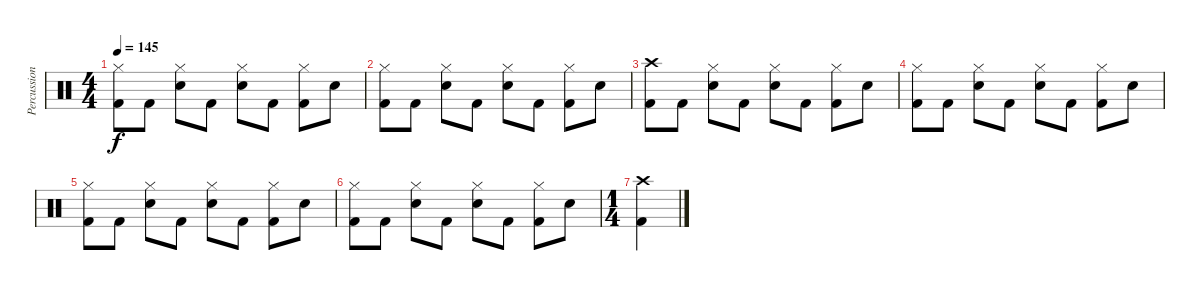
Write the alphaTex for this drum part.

\track ("Percussion" "Percussion") {instrument percussion}
\staff {score}
\articulation defaults
\ts (4 4)
\tempo 145
\clef neutral
\ks c
("Hi-Hat (closed)" "Kick (hit) 2").8{dy f} "Kick (hit) 2".8 ("Hi-Hat (closed)" "Electric Snare (hit)").8 "Kick (hit) 2".8 ("Hi-Hat (closed)" "Electric Snare (hit)").8 "Kick (hit) 2".8 ("Hi-Hat (closed)" "Kick (hit) 2").8 "Electric Snare (hit)".8 |
("Hi-Hat (closed)" "Kick (hit) 2").8 "Kick (hit) 2".8 ("Hi-Hat (closed)" "Electric Snare (hit)").8 "Kick (hit) 2".8 ("Hi-Hat (closed)" "Electric Snare (hit)").8 "Kick (hit) 2".8 ("Hi-Hat (closed)" "Kick (hit) 2").8 "Electric Snare (hit)".8 |
("Crash high (hit)" "Kick (hit) 2").8 "Kick (hit) 2".8 ("Hi-Hat (closed)" "Electric Snare (hit)").8 "Kick (hit) 2".8 ("Hi-Hat (closed)" "Electric Snare (hit)").8 "Kick (hit) 2".8 ("Hi-Hat (closed)" "Kick (hit) 2").8 "Electric Snare (hit)".8 |
("Hi-Hat (closed)" "Kick (hit) 2").8 "Kick (hit) 2".8 ("Hi-Hat (closed)" "Electric Snare (hit)").8 "Kick (hit) 2".8 ("Hi-Hat (closed)" "Electric Snare (hit)").8 "Kick (hit) 2".8 ("Hi-Hat (closed)" "Kick (hit) 2").8 "Electric Snare (hit)".8 |
("Hi-Hat (closed)" "Kick (hit) 2").8 "Kick (hit) 2".8 ("Hi-Hat (closed)" "Electric Snare (hit)").8 "Kick (hit) 2".8 ("Hi-Hat (closed)" "Electric Snare (hit)").8 "Kick (hit) 2".8 ("Hi-Hat (closed)" "Kick (hit) 2").8 "Electric Snare (hit)".8 |
("Hi-Hat (closed)" "Kick (hit) 2").8 "Kick (hit) 2".8 ("Hi-Hat (closed)" "Electric Snare (hit)").8 "Kick (hit) 2".8 ("Hi-Hat (closed)" "Electric Snare (hit)").8 "Kick (hit) 2".8 ("Hi-Hat (closed)" "Kick (hit) 2").8 "Electric Snare (hit)".8 |
\ts (1 4)
("Crash high (hit)" "Kick (hit) 2").4
